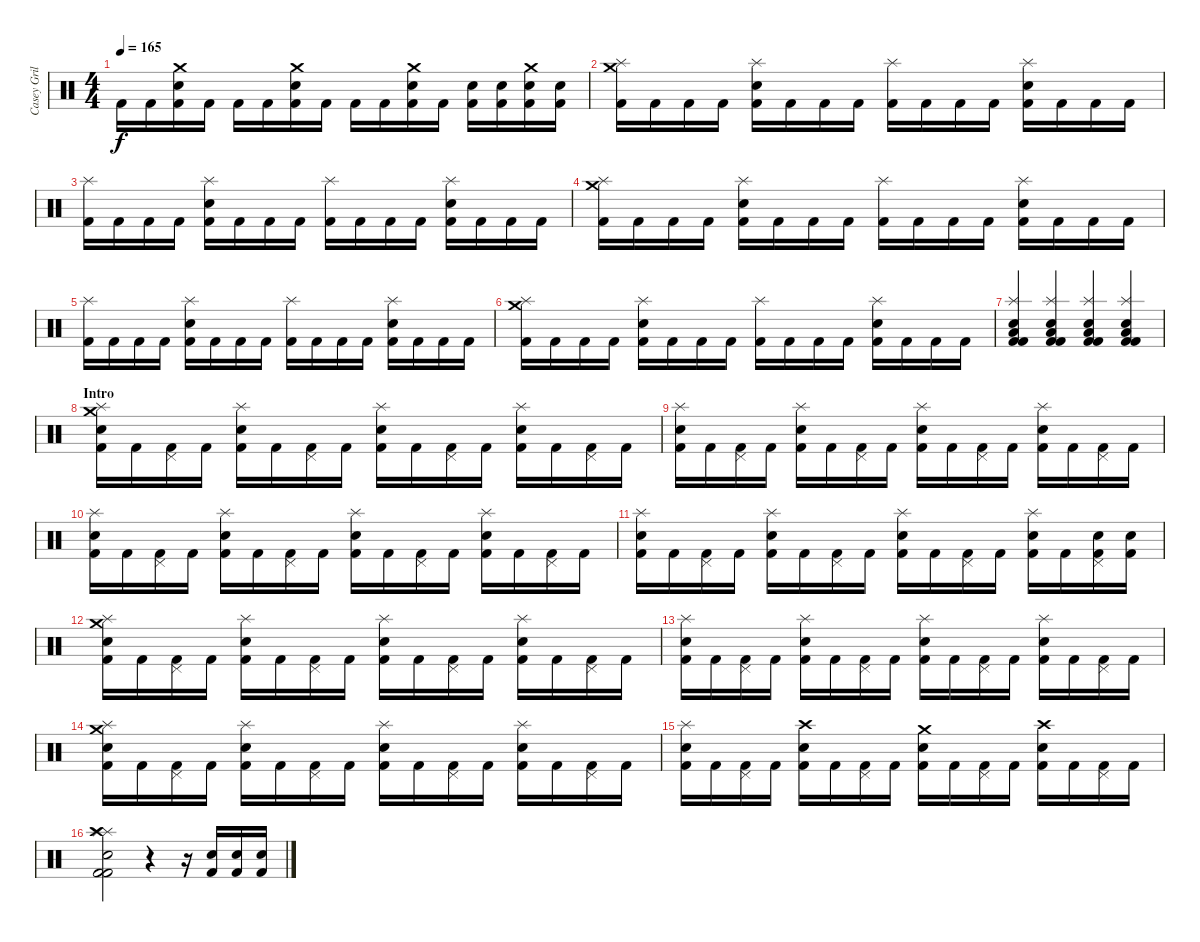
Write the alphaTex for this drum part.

\track ("Casey Grillo" "Casey Gril") {instrument percussion}
\staff {score}
\articulation defaults
\ts (4 4)
\tempo 165
\clef neutral
\ks c "Kick (hit) 2".16{dy f} "Kick (hit) 2".16
("Electric Snare (hit)" "Crash medium (hit)" "Kick (hit) 2").16 "Kick (hit) 2".16 "Kick (hit) 2".16 "Kick (hit) 2".16 ("Electric Snare (hit)" "Crash medium (hit)" "Kick (hit) 2").16 "Kick (hit) 2".16 "Kick (hit) 2".16 "Kick (hit) 2".16 ("Electric Snare (hit)" "Crash medium (hit)" "Kick (hit) 2").16 "Kick (hit) 2".16 ("Electric Snare (hit)" "Kick (hit) 2").16 ("Electric Snare (hit)" "Kick (hit) 2").16 ("Electric Snare (hit)" "Crash medium (hit)" "Kick (hit) 2").16 ("Electric Snare (hit)" "Kick (hit) 2").16 |
("Splash (hit)" "Crash medium (hit)" "Kick (hit) 2").16 "Kick (hit) 2".16 "Kick (hit) 2".16 "Kick (hit) 2".16 ("Electric Snare (hit)" "Splash (hit)" "Kick (hit) 2").16 "Kick (hit) 2".16 "Kick (hit) 2".16 "Kick (hit) 2".16 ("Splash (hit)" "Kick (hit) 2").16 "Kick (hit) 2".16 "Kick (hit) 2".16 "Kick (hit) 2".16 ("Electric Snare (hit)" "Splash (hit)" "Kick (hit) 2").16 "Kick (hit) 2".16 "Kick (hit) 2".16 "Kick (hit) 2".16 |
("Splash (hit)" "Kick (hit) 2").16 "Kick (hit) 2".16 "Kick (hit) 2".16 "Kick (hit) 2".16 ("Electric Snare (hit)" "Splash (hit)" "Kick (hit) 2").16 "Kick (hit) 2".16 "Kick (hit) 2".16 "Kick (hit) 2".16 ("Splash (hit)" "Kick (hit) 2").16 "Kick (hit) 2".16 "Kick (hit) 2".16 "Kick (hit) 2".16 ("Electric Snare (hit)" "Splash (hit)" "Kick (hit) 2").16 "Kick (hit) 2".16 "Kick (hit) 2".16 "Kick (hit) 2".16 |
("Splash (hit)" "Crash medium (hit)" "Kick (hit) 2").16 "Kick (hit) 2".16 "Kick (hit) 2".16 "Kick (hit) 2".16 ("Electric Snare (hit)" "Splash (hit)" "Kick (hit) 2").16 "Kick (hit) 2".16 "Kick (hit) 2".16 "Kick (hit) 2".16 ("Splash (hit)" "Kick (hit) 2").16 "Kick (hit) 2".16 "Kick (hit) 2".16 "Kick (hit) 2".16 ("Electric Snare (hit)" "Splash (hit)" "Kick (hit) 2").16 "Kick (hit) 2".16 "Kick (hit) 2".16 "Kick (hit) 2".16 |
("Splash (hit)" "Kick (hit) 2").16 "Kick (hit) 2".16 "Kick (hit) 2".16 "Kick (hit) 2".16 ("Electric Snare (hit)" "Splash (hit)" "Kick (hit) 2").16 "Kick (hit) 2".16 "Kick (hit) 2".16 "Kick (hit) 2".16 ("Splash (hit)" "Kick (hit) 2").16 "Kick (hit) 2".16 "Kick (hit) 2".16 "Kick (hit) 2".16 ("Electric Snare (hit)" "Splash (hit)" "Kick (hit) 2").16 "Kick (hit) 2".16 "Kick (hit) 2".16 "Kick (hit) 2".16 |
("Splash (hit)" "Crash medium (hit)" "Kick (hit) 2").16 "Kick (hit) 2".16 "Kick (hit) 2".16 "Kick (hit) 2".16 ("Electric Snare (hit)" "Splash (hit)" "Kick (hit) 2").16 "Kick (hit) 2".16 "Kick (hit) 2".16 "Kick (hit) 2".16 ("Splash (hit)" "Kick (hit) 2").16 "Kick (hit) 2".16 "Kick (hit) 2".16 "Kick (hit) 2".16 ("Electric Snare (hit)" "Splash (hit)" "Kick (hit) 2").16 "Kick (hit) 2".16 "Kick (hit) 2".16 "Kick (hit) 2".16 |
("Snare (hit) 2" "Splash (hit)" "Low Tom (hit)" "Kick (hit) 2" "Kick (hit) 2").4 ("Snare (hit) 2" "Splash (hit)" "Low Tom (hit)" "Kick (hit) 2" "Kick (hit) 2").4 ("Snare (hit) 2" "Splash (hit)" "Low Tom (hit)" "Kick (hit) 2" "Kick (hit) 2").4 ("Snare (hit) 2" "Splash (hit)" "Low Tom (hit)" "Kick (hit) 2" "Kick (hit) 2").4 |
\section ("" "Intro")
("Electric Snare (hit)" "Splash (hit)" "Crash medium (hit)" "Kick (hit) 2").16 "Kick (hit) 2".16 ("Pedal Hi-Hat (hit)" "Kick (hit) 2").16 "Kick (hit) 2".16 ("Electric Snare (hit)" "Splash (hit)" "Kick (hit) 2").16 "Kick (hit) 2".16 ("Pedal Hi-Hat (hit)" "Kick (hit) 2").16 "Kick (hit) 2".16 ("Electric Snare (hit)" "Splash (hit)" "Kick (hit) 2").16 "Kick (hit) 2".16 ("Pedal Hi-Hat (hit)" "Kick (hit) 2").16 "Kick (hit) 2".16 ("Electric Snare (hit)" "Splash (hit)" "Kick (hit) 2").16 "Kick (hit) 2".16 ("Pedal Hi-Hat (hit)" "Kick (hit) 2").16 "Kick (hit) 2".16 |
("Electric Snare (hit)" "Splash (hit)" "Kick (hit) 2").16 "Kick (hit) 2".16 ("Pedal Hi-Hat (hit)" "Kick (hit) 2").16 "Kick (hit) 2".16 ("Electric Snare (hit)" "Splash (hit)" "Kick (hit) 2").16 "Kick (hit) 2".16 ("Pedal Hi-Hat (hit)" "Kick (hit) 2").16 "Kick (hit) 2".16 ("Electric Snare (hit)" "Splash (hit)" "Kick (hit) 2").16 "Kick (hit) 2".16 ("Pedal Hi-Hat (hit)" "Kick (hit) 2").16 "Kick (hit) 2".16 ("Electric Snare (hit)" "Splash (hit)" "Kick (hit) 2").16 "Kick (hit) 2".16 ("Pedal Hi-Hat (hit)" "Kick (hit) 2").16 "Kick (hit) 2".16 |
("Electric Snare (hit)" "Splash (hit)" "Kick (hit) 2").16 "Kick (hit) 2".16 ("Pedal Hi-Hat (hit)" "Kick (hit) 2").16 "Kick (hit) 2".16 ("Electric Snare (hit)" "Splash (hit)" "Kick (hit) 2").16 "Kick (hit) 2".16 ("Pedal Hi-Hat (hit)" "Kick (hit) 2").16 "Kick (hit) 2".16 ("Electric Snare (hit)" "Splash (hit)" "Kick (hit) 2").16 "Kick (hit) 2".16 ("Pedal Hi-Hat (hit)" "Kick (hit) 2").16 "Kick (hit) 2".16 ("Electric Snare (hit)" "Splash (hit)" "Kick (hit) 2").16 "Kick (hit) 2".16 ("Pedal Hi-Hat (hit)" "Kick (hit) 2").16 "Kick (hit) 2".16 |
("Electric Snare (hit)" "Splash (hit)" "Kick (hit) 2").16 "Kick (hit) 2".16 ("Pedal Hi-Hat (hit)" "Kick (hit) 2").16 "Kick (hit) 2".16 ("Electric Snare (hit)" "Splash (hit)" "Kick (hit) 2").16 "Kick (hit) 2".16 ("Pedal Hi-Hat (hit)" "Kick (hit) 2").16 "Kick (hit) 2".16 ("Electric Snare (hit)" "Splash (hit)" "Kick (hit) 2").16 "Kick (hit) 2".16 ("Pedal Hi-Hat (hit)" "Kick (hit) 2").16 "Kick (hit) 2".16 ("Electric Snare (hit)" "Splash (hit)" "Kick (hit) 2").16 "Kick (hit) 2".16 ("Electric Snare (hit)" "Pedal Hi-Hat (hit)" "Kick (hit) 2").16 ("Electric Snare (hit)" "Kick (hit) 2").16 |
("Electric Snare (hit)" "Splash (hit)" "Crash medium (hit)" "Kick (hit) 2").16 "Kick (hit) 2".16 ("Pedal Hi-Hat (hit)" "Kick (hit) 2").16 "Kick (hit) 2".16 ("Electric Snare (hit)" "Splash (hit)" "Kick (hit) 2").16 "Kick (hit) 2".16 ("Pedal Hi-Hat (hit)" "Kick (hit) 2").16 "Kick (hit) 2".16 ("Electric Snare (hit)" "Splash (hit)" "Kick (hit) 2").16 "Kick (hit) 2".16 ("Pedal Hi-Hat (hit)" "Kick (hit) 2").16 "Kick (hit) 2".16 ("Electric Snare (hit)" "Splash (hit)" "Kick (hit) 2").16 "Kick (hit) 2".16 ("Pedal Hi-Hat (hit)" "Kick (hit) 2").16 "Kick (hit) 2".16 |
("Electric Snare (hit)" "Splash (hit)" "Kick (hit) 2").16 "Kick (hit) 2".16 ("Pedal Hi-Hat (hit)" "Kick (hit) 2").16 "Kick (hit) 2".16 ("Electric Snare (hit)" "Splash (hit)" "Kick (hit) 2").16 "Kick (hit) 2".16 ("Pedal Hi-Hat (hit)" "Kick (hit) 2").16 "Kick (hit) 2".16 ("Electric Snare (hit)" "Splash (hit)" "Kick (hit) 2").16 "Kick (hit) 2".16 ("Pedal Hi-Hat (hit)" "Kick (hit) 2").16 "Kick (hit) 2".16 ("Electric Snare (hit)" "Splash (hit)" "Kick (hit) 2").16 "Kick (hit) 2".16 ("Pedal Hi-Hat (hit)" "Kick (hit) 2").16 "Kick (hit) 2".16 |
("Electric Snare (hit)" "Splash (hit)" "Crash medium (hit)" "Kick (hit) 2").16 "Kick (hit) 2".16 ("Pedal Hi-Hat (hit)" "Kick (hit) 2").16 "Kick (hit) 2".16 ("Electric Snare (hit)" "Splash (hit)" "Kick (hit) 2").16 "Kick (hit) 2".16 ("Pedal Hi-Hat (hit)" "Kick (hit) 2").16 "Kick (hit) 2".16 ("Electric Snare (hit)" "Splash (hit)" "Kick (hit) 2").16 "Kick (hit) 2".16 ("Pedal Hi-Hat (hit)" "Kick (hit) 2").16 "Kick (hit) 2".16 ("Electric Snare (hit)" "Splash (hit)" "Kick (hit) 2").16 "Kick (hit) 2".16 ("Pedal Hi-Hat (hit)" "Kick (hit) 2").16 "Kick (hit) 2".16 |
("Electric Snare (hit)" "Splash (hit)" "Kick (hit) 2").16 "Kick (hit) 2".16 ("Pedal Hi-Hat (hit)" "Kick (hit) 2").16 "Kick (hit) 2".16 ("Electric Snare (hit)" "Crash high (hit)" "Kick (hit) 2").16 "Kick (hit) 2".16 ("Pedal Hi-Hat (hit)" "Kick (hit) 2").16 "Kick (hit) 2".16 ("Electric Snare (hit)" "Crash medium (hit)" "Kick (hit) 2").16 "Kick (hit) 2".16 ("Pedal Hi-Hat (hit)" "Kick (hit) 2").16 "Kick (hit) 2".16 ("Electric Snare (hit)" "Crash high (hit)" "Kick (hit) 2").16 "Kick (hit) 2".16 ("Pedal Hi-Hat (hit)" "Kick (hit) 2").16 "Kick (hit) 2".16 |
("Electric Snare (hit)" "Splash (hit)" "Splash (hit)" "Crash high (hit)" "Kick (hit) 2" "Kick (hit) 2").2 r.4 r.16 ("Electric Snare (hit)" "Kick (hit) 2").16 ("Electric Snare (hit)" "Kick (hit) 2").16 ("Electric Snare (hit)" "Kick (hit) 2").16
